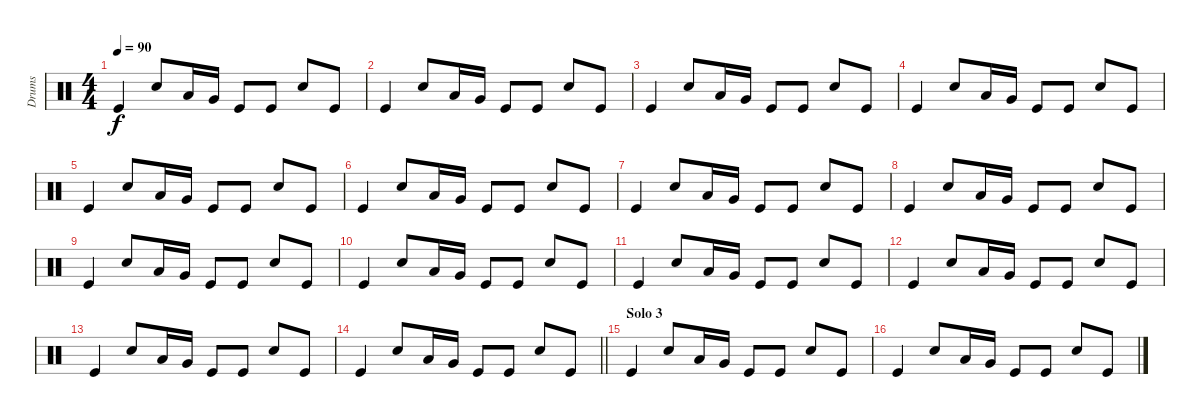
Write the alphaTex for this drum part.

\track ("Drums" "Drums") {instrument percussion}
\staff {score}
\articulation defaults
\ts (4 4)
\tempo 90
\clef neutral
\ks aminor "Kick (hit)".4{dy f} "Hand Clap (hit)".8 "Low Tom (hit)".16 "Very Low Tom (hit)".16 "Kick (hit)".8 "Kick (hit)".8 "Hand Clap (hit)".8 "Kick (hit)".8
|
"Kick (hit)".4 "Hand Clap (hit)".8 "Low Tom (hit)".16 "Very Low Tom (hit)".16 "Kick (hit)".8 "Kick (hit)".8 "Hand Clap (hit)".8 "Kick (hit)".8 |
"Kick (hit)".4 "Hand Clap (hit)".8 "Low Tom (hit)".16 "Very Low Tom (hit)".16 "Kick (hit)".8 "Kick (hit)".8 "Hand Clap (hit)".8 "Kick (hit)".8 |
"Kick (hit)".4 "Hand Clap (hit)".8 "Low Tom (hit)".16 "Very Low Tom (hit)".16 "Kick (hit)".8 "Kick (hit)".8 "Hand Clap (hit)".8 "Kick (hit)".8 |
"Kick (hit)".4 "Hand Clap (hit)".8 "Low Tom (hit)".16 "Very Low Tom (hit)".16 "Kick (hit)".8 "Kick (hit)".8 "Hand Clap (hit)".8 "Kick (hit)".8 |
"Kick (hit)".4 "Hand Clap (hit)".8 "Low Tom (hit)".16 "Very Low Tom (hit)".16 "Kick (hit)".8 "Kick (hit)".8 "Hand Clap (hit)".8 "Kick (hit)".8 |
"Kick (hit)".4 "Hand Clap (hit)".8 "Low Tom (hit)".16 "Very Low Tom (hit)".16 "Kick (hit)".8 "Kick (hit)".8 "Hand Clap (hit)".8 "Kick (hit)".8 |
"Kick (hit)".4 "Hand Clap (hit)".8 "Low Tom (hit)".16 "Very Low Tom (hit)".16 "Kick (hit)".8 "Kick (hit)".8 "Hand Clap (hit)".8 "Kick (hit)".8 |
"Kick (hit)".4 "Hand Clap (hit)".8 "Low Tom (hit)".16 "Very Low Tom (hit)".16 "Kick (hit)".8 "Kick (hit)".8 "Hand Clap (hit)".8 "Kick (hit)".8 |
"Kick (hit)".4 "Hand Clap (hit)".8 "Low Tom (hit)".16 "Very Low Tom (hit)".16 "Kick (hit)".8 "Kick (hit)".8 "Hand Clap (hit)".8 "Kick (hit)".8 |
"Kick (hit)".4 "Hand Clap (hit)".8 "Low Tom (hit)".16 "Very Low Tom (hit)".16 "Kick (hit)".8 "Kick (hit)".8 "Hand Clap (hit)".8 "Kick (hit)".8 |
"Kick (hit)".4 "Hand Clap (hit)".8 "Low Tom (hit)".16 "Very Low Tom (hit)".16 "Kick (hit)".8 "Kick (hit)".8 "Hand Clap (hit)".8 "Kick (hit)".8 |
"Kick (hit)".4 "Hand Clap (hit)".8 "Low Tom (hit)".16 "Very Low Tom (hit)".16 "Kick (hit)".8 "Kick (hit)".8 "Hand Clap (hit)".8 "Kick (hit)".8 |
\barLineRight lightlight "Kick (hit)".4 "Hand Clap (hit)".8 "Low Tom (hit)".16 "Very Low Tom (hit)".16 "Kick (hit)".8 "Kick (hit)".8 "Hand Clap (hit)".8 "Kick (hit)".8
|
\section ("" "Solo 3")
"Kick (hit)".4 "Hand Clap (hit)".8 "Low Tom (hit)".16 "Very Low Tom (hit)".16 "Kick (hit)".8 "Kick (hit)".8 "Hand Clap (hit)".8 "Kick (hit)".8 |
"Kick (hit)".4 "Hand Clap (hit)".8 "Low Tom (hit)".16 "Very Low Tom (hit)".16 "Kick (hit)".8 "Kick (hit)".8 "Hand Clap (hit)".8 "Kick (hit)".8
